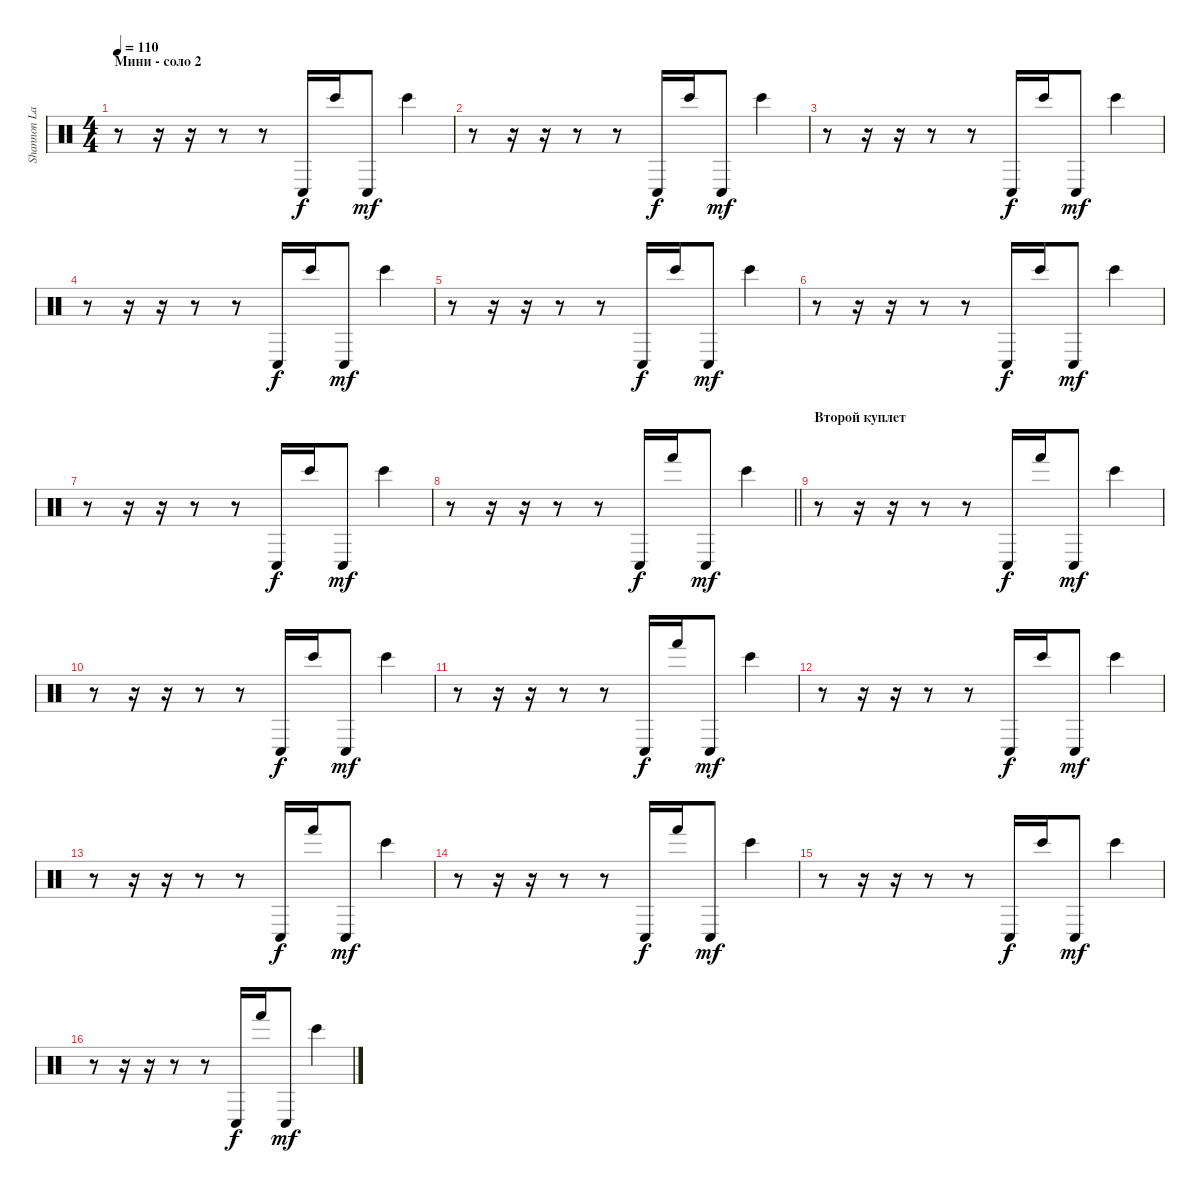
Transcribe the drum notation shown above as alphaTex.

\track ("Shannon Larkin [Percussion 2]" "Shannon La") {instrument percussion}
\staff {score}
\articulation defaults
\ts (4 4)
\section ("" "Мини - соло 2")
\tempo 110
\clef neutral
\ks c
r.8{dy mf} r.16 r.16 r.8 r.8 "Conga low (hit)".16{dy f} "Bongo High (hit)".16 "Conga low (hit)".8{dy mf} "Bongo High (hit)".4 |
r.8 r.16 r.16 r.8 r.8 "Conga low (hit)".16{dy f} "Bongo High (hit)".16 "Conga low (hit)".8{dy mf} "Bongo High (hit)".4 |
r.8 r.16 r.16 r.8 r.8 "Conga low (hit)".16{dy f} "Bongo High (hit)".16 "Conga low (hit)".8{dy mf} "Bongo High (hit)".4 |
r.8 r.16 r.16 r.8 r.8 "Conga low (hit)".16{dy f} "Bongo High (hit)".16 "Conga low (hit)".8{dy mf} "Bongo High (hit)".4 |
r.8 r.16 r.16 r.8 r.8 "Conga low (hit)".16{dy f} "Bongo High (hit)".16 "Conga low (hit)".8{dy mf} "Bongo High (hit)".4 |
r.8 r.16 r.16 r.8 r.8 "Conga low (hit)".16{dy f} "Bongo High (hit)".16 "Conga low (hit)".8{dy mf} "Bongo High (hit)".4 |
r.8 r.16 r.16 r.8 r.8 "Conga low (hit)".16{dy f} "Bongo High (hit)".16 "Conga low (hit)".8{dy mf} "Bongo High (hit)".4 |
\barLineRight lightlight
r.8 r.16 r.16 r.8 r.8 "Conga low (hit)".16{dy f} "Hand (hit)".16 "Conga low (hit)".8{dy mf} "Bongo High (hit)".4 |
\section ("" "Второй куплет")
r.8 r.16 r.16 r.8 r.8 "Conga low (hit)".16{dy f} "Hand (hit)".16 "Conga low (hit)".8{dy mf} "Bongo High (hit)".4 |
r.8 r.16 r.16 r.8 r.8 "Conga low (hit)".16{dy f} "Bongo High (hit)".16 "Conga low (hit)".8{dy mf} "Bongo High (hit)".4 |
r.8 r.16 r.16 r.8 r.8 "Conga low (hit)".16{dy f} "Hand (hit)".16 "Conga low (hit)".8{dy mf} "Bongo High (hit)".4 |
r.8 r.16 r.16 r.8 r.8 "Conga low (hit)".16{dy f} "Bongo High (hit)".16 "Conga low (hit)".8{dy mf} "Bongo High (hit)".4 |
r.8 r.16 r.16 r.8 r.8 "Conga low (hit)".16{dy f} "Hand (hit)".16 "Conga low (hit)".8{dy mf} "Bongo High (hit)".4 |
r.8 r.16 r.16 r.8 r.8 "Conga low (hit)".16{dy f} "Hand (hit)".16 "Conga low (hit)".8{dy mf} "Bongo High (hit)".4 |
r.8 r.16 r.16 r.8 r.8 "Conga low (hit)".16{dy f} "Bongo High (hit)".16 "Conga low (hit)".8{dy mf} "Bongo High (hit)".4 |
r.8 r.16 r.16 r.8 r.8 "Conga low (hit)".16{dy f} "Hand (hit)".16 "Conga low (hit)".8{dy mf} "Bongo High (hit)".4
